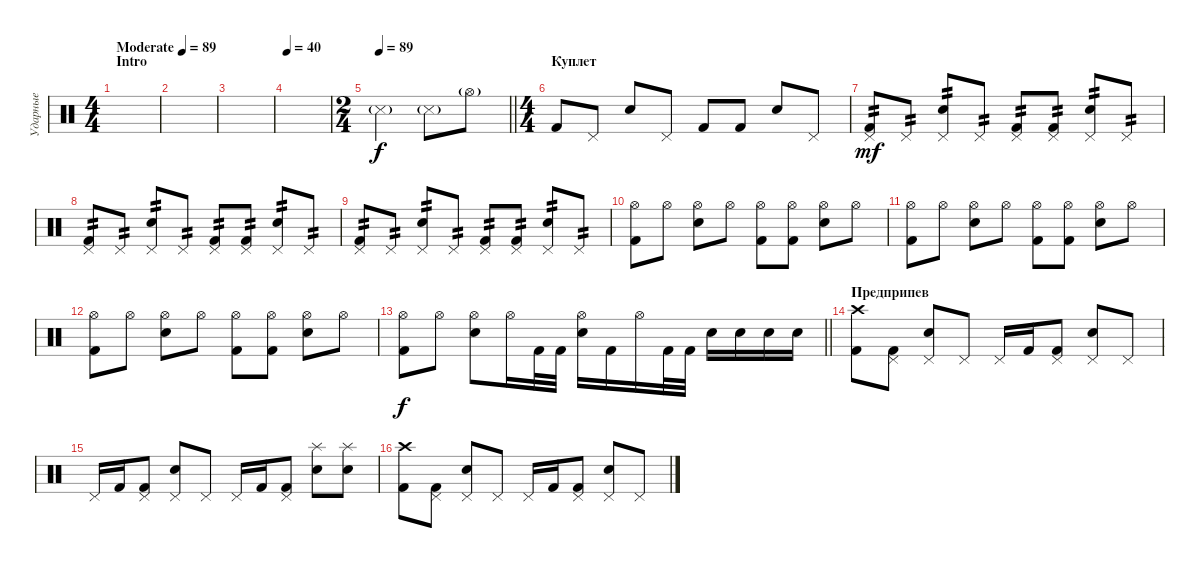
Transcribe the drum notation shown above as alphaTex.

\track ("Ударные" "Ударные") {instrument percussion}
\staff {score}
\articulation defaults
\ts (4 4)
\section ("" "Intro")
\tempo (89 "Moderate")
\clef neutral
\ks c
|
|
|
\tempo 40
|
\ts (2 4)
\tempo 89
\barLineRight lightlight "Snare (side stick) 3"{g}.4 "Snare (side stick) 3"{g}.8 "Hi-Hat (open)"{g}.8
|
\ts (4 4)
\section ("" "Куплет")
"Kick (hit) 2".8{dy f} "Pedal Hi-Hat (hit)".8 "Electric Snare (hit)".8 "Pedal Hi-Hat (hit)".8 "Kick (hit) 2".8 "Kick (hit) 2".8 "Electric Snare (hit)".8 "Pedal Hi-Hat (hit)".8 |
("Kick (hit) 2" "Pedal Hi-Hat (hit)").8{tp 2 dy mf} "Pedal Hi-Hat (hit)".8{tp 2} ("Electric Snare (hit)" "Pedal Hi-Hat (hit)").8{tp 2} "Pedal Hi-Hat (hit)".8{tp 2} ("Kick (hit) 2" "Pedal Hi-Hat (hit)").8{tp 2} ("Kick (hit) 2" "Pedal Hi-Hat (hit)").8{tp 2} ("Electric Snare (hit)" "Pedal Hi-Hat (hit)").8{tp 2} "Pedal Hi-Hat (hit)".8{tp 2} |
("Kick (hit) 2" "Pedal Hi-Hat (hit)").8{tp 2} "Pedal Hi-Hat (hit)".8{tp 2} ("Electric Snare (hit)" "Pedal Hi-Hat (hit)").8{tp 2} "Pedal Hi-Hat (hit)".8{tp 2} ("Kick (hit) 2" "Pedal Hi-Hat (hit)").8{tp 2} ("Kick (hit) 2" "Pedal Hi-Hat (hit)").8{tp 2} ("Electric Snare (hit)" "Pedal Hi-Hat (hit)").8{tp 2} "Pedal Hi-Hat (hit)".8{tp 2} |
("Kick (hit) 2" "Pedal Hi-Hat (hit)").8{tp 2} "Pedal Hi-Hat (hit)".8{tp 2} ("Electric Snare (hit)" "Pedal Hi-Hat (hit)").8{tp 2} "Pedal Hi-Hat (hit)".8{tp 2} ("Kick (hit) 2" "Pedal Hi-Hat (hit)").8{tp 2} ("Kick (hit) 2" "Pedal Hi-Hat (hit)").8{tp 2} ("Electric Snare (hit)" "Pedal Hi-Hat (hit)").8{tp 2} "Pedal Hi-Hat (hit)".8{tp 2} |
("Kick (hit) 2" "Hi-Hat (open)").8 "Hi-Hat (open)".8 ("Electric Snare (hit)" "Hi-Hat (open)").8 "Hi-Hat (open)".8 ("Kick (hit) 2" "Hi-Hat (open)").8 ("Kick (hit) 2" "Hi-Hat (open)").8 ("Electric Snare (hit)" "Hi-Hat (open)").8 "Hi-Hat (open)".8 |
("Kick (hit) 2" "Hi-Hat (open)").8 "Hi-Hat (open)".8 ("Electric Snare (hit)" "Hi-Hat (open)").8 "Hi-Hat (open)".8 ("Kick (hit) 2" "Hi-Hat (open)").8 ("Kick (hit) 2" "Hi-Hat (open)").8 ("Electric Snare (hit)" "Hi-Hat (open)").8 "Hi-Hat (open)".8 |
("Kick (hit) 2" "Hi-Hat (open)").8 "Hi-Hat (open)".8 ("Electric Snare (hit)" "Hi-Hat (open)").8 "Hi-Hat (open)".8 ("Kick (hit) 2" "Hi-Hat (open)").8 ("Kick (hit) 2" "Hi-Hat (open)").8 ("Electric Snare (hit)" "Hi-Hat (open)").8 "Hi-Hat (open)".8 |
\barLineRight lightlight
("Kick (hit) 2" "Hi-Hat (open)").8{dy f} "Hi-Hat (open)".8 ("Electric Snare (hit)" "Hi-Hat (open)").8 "Hi-Hat (open)".16 "Kick (hit) 2".32 "Kick (hit) 2".32 ("Electric Snare (hit)" "Hi-Hat (open)").16 "Kick (hit) 2".16 "Hi-Hat (open)".16 "Kick (hit) 2".32 "Kick (hit) 2".32 "Electric Snare (hit)".16 "Electric Snare (hit)".16 "Electric Snare (hit)".16 "Electric Snare (hit)".16 |
\section ("" "Предприпев")
("Kick (hit) 2" "Crash high (hit)").8 ("Kick (hit) 2" "Pedal Hi-Hat (hit)").8 ("Electric Snare (hit)" "Pedal Hi-Hat (hit)").8 "Pedal Hi-Hat (hit)".8 "Pedal Hi-Hat (hit)".16 "Kick (hit) 2".16 ("Kick (hit) 2" "Pedal Hi-Hat (hit)").8 ("Electric Snare (hit)" "Pedal Hi-Hat (hit)").8 "Pedal Hi-Hat (hit)".8 |
"Pedal Hi-Hat (hit)".16 "Kick (hit) 2".16 ("Kick (hit) 2" "Pedal Hi-Hat (hit)").8 ("Electric Snare (hit)" "Pedal Hi-Hat (hit)").8 "Pedal Hi-Hat (hit)".8 "Pedal Hi-Hat (hit)".16 "Kick (hit) 2".16 ("Kick (hit) 2" "Pedal Hi-Hat (hit)").8 ("Electric Snare (hit)" "Splash (hit)").8 ("Electric Snare (hit)" "Splash (hit)").8 |
("Kick (hit) 2" "Crash high (hit)").8 ("Kick (hit) 2" "Pedal Hi-Hat (hit)").8 ("Electric Snare (hit)" "Pedal Hi-Hat (hit)").8 "Pedal Hi-Hat (hit)".8 "Pedal Hi-Hat (hit)".16 "Kick (hit) 2".16 ("Kick (hit) 2" "Pedal Hi-Hat (hit)").8 ("Electric Snare (hit)" "Pedal Hi-Hat (hit)").8 "Pedal Hi-Hat (hit)".8
